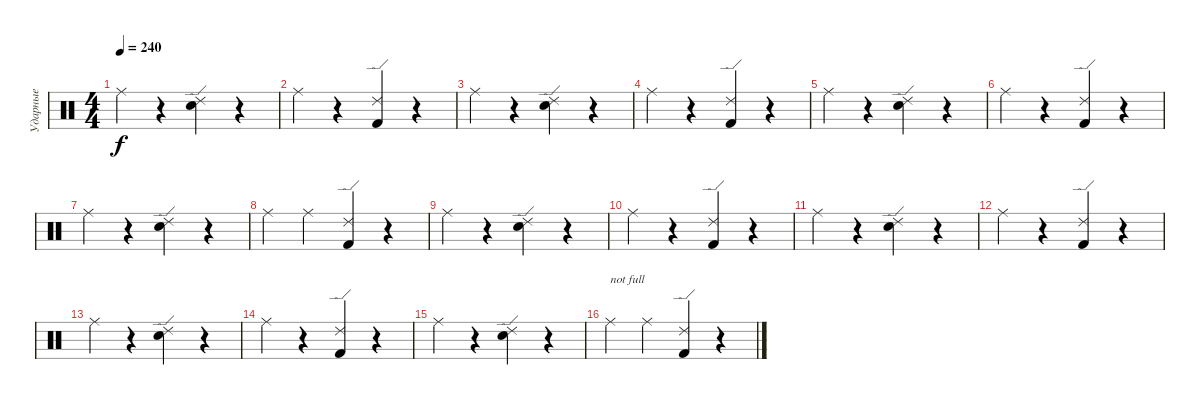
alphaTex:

\track ("Ударные" "Ударные") {instrument percussion}
\staff {score}
\articulation defaults
\ts (4 4)
\tempo 240
\clef neutral
\ks c "Ride (middle)".4{dy f}
r.4 ("Ride (edge) 2" "Snare (hit) 2").4 r.4 |
"Ride (middle)".4 r.4 ("Ride (edge) 2" "Kick (hit) 2").4 r.4 |
"Ride (middle)".4 r.4 ("Ride (edge) 2" "Snare (hit) 2").4 r.4 |
"Ride (middle)".4 r.4 ("Ride (edge) 2" "Kick (hit) 2").4 r.4 |
"Ride (middle)".4 r.4 ("Ride (edge) 2" "Snare (hit) 2").4 r.4 |
"Ride (middle)".4 r.4 ("Ride (edge) 2" "Kick (hit) 2").4 r.4 |
"Ride (middle)".4 r.4 ("Ride (edge) 2" "Snare (hit) 2").4 r.4 |
"Ride (middle)".4 "Ride (middle)".4 ("Ride (edge) 2" "Kick (hit) 2").4 r.4 |
"Ride (middle)".4 r.4 ("Ride (edge) 2" "Snare (hit) 2").4 r.4 |
"Ride (middle)".4 r.4 ("Ride (edge) 2" "Kick (hit) 2").4 r.4 |
"Ride (middle)".4 r.4 ("Ride (edge) 2" "Snare (hit) 2").4 r.4 |
"Ride (middle)".4 r.4 ("Ride (edge) 2" "Kick (hit) 2").4 r.4 |
"Ride (middle)".4 r.4 ("Ride (edge) 2" "Snare (hit) 2").4 r.4 |
"Ride (middle)".4 r.4 ("Ride (edge) 2" "Kick (hit) 2").4 r.4 |
"Ride (middle)".4 r.4 ("Ride (edge) 2" "Snare (hit) 2").4 r.4 |
"Ride (middle)".4{txt "not full"} "Ride (middle)".4 ("Ride (edge) 2" "Kick (hit) 2").4 r.4
